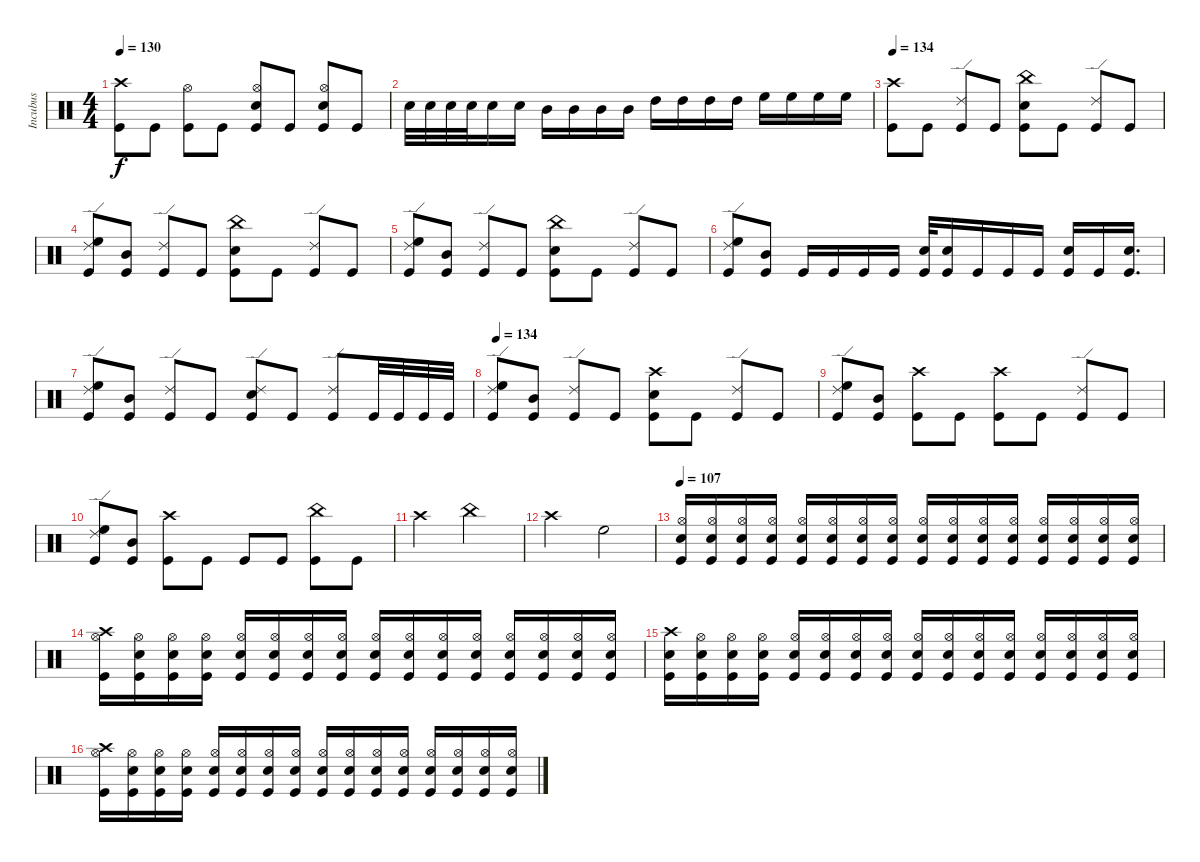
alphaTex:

\track ("Incubus" "Incubus") {instrument percussion}
\staff {score}
\articulation defaults
\ts (4 4)
\tempo 130
\clef neutral
\ks c
("Crash high (hit)" "Kick (hit)").8{dy f} "Kick (hit)".8 ("Hi-Hat (open)" "Kick (hit)").8 "Kick (hit)".8 ("Electric Snare (hit)" "Hi-Hat (open)" "Kick (hit)").8 "Kick (hit)".8 ("Electric Snare (hit)" "Hi-Hat (open)" "Kick (hit)").8 "Kick (hit)".8 |
"Electric Snare (hit)".32 "Electric Snare (hit)".32 "Electric Snare (hit)".32 "Electric Snare (hit)".32 "Electric Snare (hit)".16 "Electric Snare (hit)".16 "Mid Tom (hit)".16 "Mid Tom (hit)".16 "Mid Tom (hit)".16 "Mid Tom (hit)".16 "High Tom (hit)".16 "High Tom (hit)".16 "High Tom (hit)".16 "High Tom (hit)".16 "High Floor Tom (hit)".16 "High Floor Tom (hit)".16 "High Floor Tom (hit)".16 "High Floor Tom (hit)".16 |
\tempo 134
("Crash high (hit)" "Kick (hit)").8 "Kick (hit)".8 ("Ride (edge) 2" "Kick (hit)").8 "Kick (hit)".8 ("China (hit)" "Electric Snare (hit)" "Kick (hit)").8 "Kick (hit)".8 ("Ride (edge) 2" "Kick (hit)").8 "Kick (hit)".8 |
("High Floor Tom (hit)" "Ride (edge) 2" "Kick (hit)").8 ("Mid Tom (hit)" "Kick (hit)").8 ("Ride (edge) 2" "Kick (hit)").8 "Kick (hit)".8 ("Electric Snare (hit)" "China (hit)" "Kick (hit)").8 "Kick (hit)".8 ("Ride (edge) 2" "Kick (hit)").8 "Kick (hit)".8 |
("High Floor Tom (hit)" "Ride (edge) 2" "Kick (hit)").8 ("Mid Tom (hit)" "Kick (hit)").8 ("Ride (edge) 2" "Kick (hit)").8 "Kick (hit)".8 ("Electric Snare (hit)" "China (hit)" "Kick (hit)").8 "Kick (hit)".8 ("Ride (edge) 2" "Kick (hit)").8 "Kick (hit)".8 |
("High Floor Tom (hit)" "Ride (edge) 2" "Kick (hit)").8 ("Mid Tom (hit)" "Kick (hit)").8 "Kick (hit)".16 "Kick (hit)".16 "Kick (hit)".16 "Kick (hit)".16 ("Electric Snare (hit)" "Kick (hit)").32 ("Electric Snare (hit)" "Kick (hit)").16 "Kick (hit)".16 "Kick (hit)".16 "Kick (hit)".16 ("Electric Snare (hit)" "Kick (hit)").16 "Kick (hit)".16 ("Electric Snare (hit)" "Kick (hit)").16{d} |
("High Floor Tom (hit)" "Ride (edge) 2" "Kick (hit)").8 ("Mid Tom (hit)" "Kick (hit)").8 ("Ride (edge) 2" "Kick (hit)").8 "Kick (hit)".8 ("Ride (edge) 2" "Electric Snare (hit)" "Kick (hit)").8 "Kick (hit)".8 ("Ride (edge) 2" "Kick (hit)").8 "Kick (hit)".32 "Kick (hit)".32 "Kick (hit)".32 "Kick (hit)".32 |
\tempo 134
("High Floor Tom (hit)" "Ride (edge) 2" "Kick (hit)").8 ("Mid Tom (hit)" "Kick (hit)").8 ("Ride (edge) 2" "Kick (hit)").8 "Kick (hit)".8 ("Crash high (hit)" "Electric Snare (hit)" "Kick (hit)").8 "Kick (hit)".8 ("Ride (edge) 2" "Kick (hit)").8 "Kick (hit)".8 |
("High Floor Tom (hit)" "Ride (edge) 2" "Kick (hit)").8 ("Mid Tom (hit)" "Kick (hit)").8 ("Crash high (hit)" "Kick (hit)").8 "Kick (hit)".8 ("Crash high (hit)" "Kick (hit)").8 "Kick (hit)".8 ("Ride (edge) 2" "Kick (hit)").8 "Kick (hit)".8 |
("High Floor Tom (hit)" "Ride (edge) 2" "Kick (hit)").8 ("Mid Tom (hit)" "Kick (hit)").8 ("Crash high (hit)" "Kick (hit)").8 "Kick (hit)".8 "Kick (hit)".8 "Kick (hit)".8 ("China (hit)" "Kick (hit)").8 "Kick (hit)".8 |
"Crash high (hit)".2 "China (hit)".2 |
"Crash high (hit)".2 "High Floor Tom (hit)".2 |
\tempo 107
("Electric Snare (hit)" "Hi-Hat (open)" "Kick (hit)").16 ("Electric Snare (hit)" "Hi-Hat (open)" "Kick (hit)").16 ("Electric Snare (hit)" "Hi-Hat (open)" "Kick (hit)").16 ("Electric Snare (hit)" "Hi-Hat (open)" "Kick (hit)").16 ("Electric Snare (hit)" "Hi-Hat (open)" "Kick (hit)").16 ("Electric Snare (hit)" "Hi-Hat (open)" "Kick (hit)").16 ("Electric Snare (hit)" "Hi-Hat (open)" "Kick (hit)").16 ("Electric Snare (hit)" "Hi-Hat (open)" "Kick (hit)").16 ("Electric Snare (hit)" "Hi-Hat (open)" "Kick (hit)").16 ("Electric Snare (hit)" "Hi-Hat (open)" "Kick (hit)").16 ("Electric Snare (hit)" "Hi-Hat (open)" "Kick (hit)").16 ("Electric Snare (hit)" "Hi-Hat (open)" "Kick (hit)").16 ("Electric Snare (hit)" "Hi-Hat (open)" "Kick (hit)").16 ("Electric Snare (hit)" "Hi-Hat (open)" "Kick (hit)").16 ("Electric Snare (hit)" "Hi-Hat (open)" "Kick (hit)").16 ("Electric Snare (hit)" "Kick (hit)" "Hi-Hat (open)").16 |
("Crash high (hit)" "Hi-Hat (open)" "Kick (hit)").16 ("Electric Snare (hit)" "Hi-Hat (open)" "Kick (hit)").16 ("Electric Snare (hit)" "Hi-Hat (open)" "Kick (hit)").16 ("Electric Snare (hit)" "Hi-Hat (open)" "Kick (hit)").16 ("Electric Snare (hit)" "Hi-Hat (open)" "Kick (hit)").16 ("Electric Snare (hit)" "Hi-Hat (open)" "Kick (hit)").16 ("Electric Snare (hit)" "Hi-Hat (open)" "Kick (hit)").16 ("Electric Snare (hit)" "Hi-Hat (open)" "Kick (hit)").16 ("Electric Snare (hit)" "Hi-Hat (open)" "Kick (hit)").16 ("Electric Snare (hit)" "Hi-Hat (open)" "Kick (hit)").16 ("Electric Snare (hit)" "Hi-Hat (open)" "Kick (hit)").16 ("Electric Snare (hit)" "Hi-Hat (open)" "Kick (hit)").16 ("Electric Snare (hit)" "Hi-Hat (open)" "Kick (hit)").16 ("Electric Snare (hit)" "Hi-Hat (open)" "Kick (hit)").16 ("Electric Snare (hit)" "Hi-Hat (open)" "Kick (hit)").16 ("Electric Snare (hit)" "Hi-Hat (open)" "Kick (hit)").16 |
("Crash high (hit)" "Electric Snare (hit)" "Kick (hit)").16 ("Electric Snare (hit)" "Hi-Hat (open)" "Kick (hit)").16 ("Electric Snare (hit)" "Hi-Hat (open)" "Kick (hit)").16 ("Electric Snare (hit)" "Hi-Hat (open)" "Kick (hit)").16 ("Electric Snare (hit)" "Hi-Hat (open)" "Kick (hit)").16 ("Electric Snare (hit)" "Hi-Hat (open)" "Kick (hit)").16 ("Electric Snare (hit)" "Hi-Hat (open)" "Kick (hit)").16 ("Electric Snare (hit)" "Hi-Hat (open)" "Kick (hit)").16 ("Electric Snare (hit)" "Hi-Hat (open)" "Kick (hit)").16 ("Electric Snare (hit)" "Hi-Hat (open)" "Kick (hit)").16 ("Electric Snare (hit)" "Hi-Hat (open)" "Kick (hit)").16 ("Electric Snare (hit)" "Hi-Hat (open)" "Kick (hit)").16 ("Electric Snare (hit)" "Hi-Hat (open)" "Kick (hit)").16 ("Electric Snare (hit)" "Hi-Hat (open)" "Kick (hit)").16 ("Electric Snare (hit)" "Hi-Hat (open)" "Kick (hit)").16 ("Electric Snare (hit)" "Kick (hit)" "Hi-Hat (open)").16 |
("Crash high (hit)" "Hi-Hat (open)" "Kick (hit)").16 ("Electric Snare (hit)" "Hi-Hat (open)" "Kick (hit)").16 ("Electric Snare (hit)" "Hi-Hat (open)" "Kick (hit)").16 ("Electric Snare (hit)" "Hi-Hat (open)" "Kick (hit)").16 ("Electric Snare (hit)" "Hi-Hat (open)" "Kick (hit)").16 ("Electric Snare (hit)" "Hi-Hat (open)" "Kick (hit)").16 ("Electric Snare (hit)" "Hi-Hat (open)" "Kick (hit)").16 ("Electric Snare (hit)" "Hi-Hat (open)" "Kick (hit)").16 ("Electric Snare (hit)" "Hi-Hat (open)" "Kick (hit)").16 ("Electric Snare (hit)" "Hi-Hat (open)" "Kick (hit)").16 ("Electric Snare (hit)" "Hi-Hat (open)" "Kick (hit)").16 ("Electric Snare (hit)" "Hi-Hat (open)" "Kick (hit)").16 ("Electric Snare (hit)" "Hi-Hat (open)" "Kick (hit)").16 ("Electric Snare (hit)" "Hi-Hat (open)" "Kick (hit)").16 ("Electric Snare (hit)" "Hi-Hat (open)" "Kick (hit)").16 ("Electric Snare (hit)" "Hi-Hat (open)" "Kick (hit)").16
